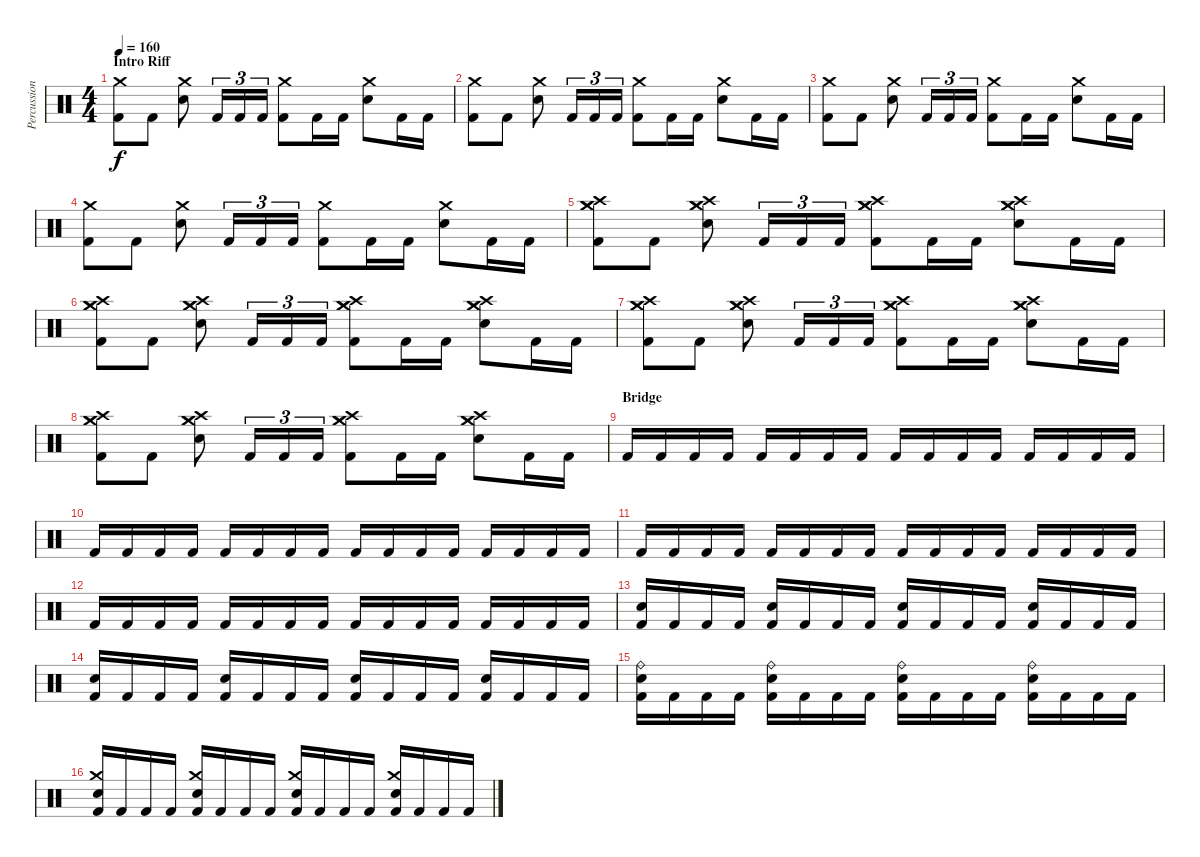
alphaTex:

\track ("Percussion" "Percussion") {instrument percussion}
\staff {score}
\articulation defaults
\ts (4 4)
\section ("" "Intro Riff")
\tempo 160
\clef neutral
\ks c
("Kick (hit) 2" "Crash medium (hit)").8{dy f} "Kick (hit) 2".8 ("Electric Snare (hit)" "Crash medium (hit)").8 "Kick (hit) 2".16{tu (3 2)} "Kick (hit) 2".16{tu (3 2)} "Kick (hit) 2".16{tu (3 2)} ("Kick (hit) 2" "Crash medium (hit)").8 "Kick (hit) 2".16 "Kick (hit) 2".16 ("Electric Snare (hit)" "Crash medium (hit)").8 "Kick (hit) 2".16 "Kick (hit) 2".16 |
("Kick (hit) 2" "Crash medium (hit)").8 "Kick (hit) 2".8 ("Electric Snare (hit)" "Crash medium (hit)").8 "Kick (hit) 2".16{tu (3 2)} "Kick (hit) 2".16{tu (3 2)} "Kick (hit) 2".16{tu (3 2)} ("Kick (hit) 2" "Crash medium (hit)").8 "Kick (hit) 2".16 "Kick (hit) 2".16 ("Electric Snare (hit)" "Crash medium (hit)").8 "Kick (hit) 2".16 "Kick (hit) 2".16 |
("Kick (hit) 2" "Crash medium (hit)").8 "Kick (hit) 2".8 ("Electric Snare (hit)" "Crash medium (hit)").8 "Kick (hit) 2".16{tu (3 2)} "Kick (hit) 2".16{tu (3 2)} "Kick (hit) 2".16{tu (3 2)} ("Kick (hit) 2" "Crash medium (hit)").8 "Kick (hit) 2".16 "Kick (hit) 2".16 ("Electric Snare (hit)" "Crash medium (hit)").8 "Kick (hit) 2".16 "Kick (hit) 2".16 |
("Kick (hit) 2" "Crash medium (hit)").8 "Kick (hit) 2".8 ("Electric Snare (hit)" "Crash medium (hit)").8 "Kick (hit) 2".16{tu (3 2)} "Kick (hit) 2".16{tu (3 2)} "Kick (hit) 2".16{tu (3 2)} ("Kick (hit) 2" "Crash medium (hit)").8 "Kick (hit) 2".16 "Kick (hit) 2".16 ("Electric Snare (hit)" "Crash medium (hit)").8 "Kick (hit) 2".16 "Kick (hit) 2".16 |
("Crash medium (hit)" "Crash high (hit)" "Kick (hit) 2" "Crash medium (hit)").8 "Kick (hit) 2".8 ("Crash medium (hit)" "Crash high (hit)" "Electric Snare (hit)" "Crash medium (hit)").8 "Kick (hit) 2".16{tu (3 2)} "Kick (hit) 2".16{tu (3 2)} "Kick (hit) 2".16{tu (3 2)} ("Crash medium (hit)" "Crash high (hit)" "Kick (hit) 2" "Crash medium (hit)").8 "Kick (hit) 2".16 "Kick (hit) 2".16 ("Crash medium (hit)" "Crash high (hit)" "Electric Snare (hit)" "Crash medium (hit)").8 "Kick (hit) 2".16 "Kick (hit) 2".16 |
("Crash medium (hit)" "Crash high (hit)" "Kick (hit) 2" "Crash medium (hit)").8 "Kick (hit) 2".8 ("Crash medium (hit)" "Crash high (hit)" "Electric Snare (hit)" "Crash medium (hit)").8 "Kick (hit) 2".16{tu (3 2)} "Kick (hit) 2".16{tu (3 2)} "Kick (hit) 2".16{tu (3 2)} ("Crash medium (hit)" "Crash high (hit)" "Kick (hit) 2" "Crash medium (hit)").8 "Kick (hit) 2".16 "Kick (hit) 2".16 ("Crash medium (hit)" "Crash high (hit)" "Electric Snare (hit)" "Crash medium (hit)").8 "Kick (hit) 2".16 "Kick (hit) 2".16 |
("Crash medium (hit)" "Crash high (hit)" "Kick (hit) 2" "Crash medium (hit)").8 "Kick (hit) 2".8 ("Crash medium (hit)" "Crash high (hit)" "Electric Snare (hit)" "Crash medium (hit)").8 "Kick (hit) 2".16{tu (3 2)} "Kick (hit) 2".16{tu (3 2)} "Kick (hit) 2".16{tu (3 2)} ("Crash medium (hit)" "Crash high (hit)" "Kick (hit) 2" "Crash medium (hit)").8 "Kick (hit) 2".16 "Kick (hit) 2".16 ("Crash medium (hit)" "Crash high (hit)" "Electric Snare (hit)" "Crash medium (hit)").8 "Kick (hit) 2".16 "Kick (hit) 2".16 |
("Crash medium (hit)" "Crash high (hit)" "Kick (hit) 2" "Crash medium (hit)").8 "Kick (hit) 2".8 ("Crash medium (hit)" "Crash high (hit)" "Electric Snare (hit)" "Crash medium (hit)").8 "Kick (hit) 2".16{tu (3 2)} "Kick (hit) 2".16{tu (3 2)} "Kick (hit) 2".16{tu (3 2)} ("Crash medium (hit)" "Crash high (hit)" "Kick (hit) 2" "Crash medium (hit)").8 "Kick (hit) 2".16 "Kick (hit) 2".16 ("Crash medium (hit)" "Crash high (hit)" "Electric Snare (hit)" "Crash medium (hit)").8 "Kick (hit) 2".16 "Kick (hit) 2".16 |
\section ("" "Bridge")
"Kick (hit) 2".16 "Kick (hit) 2".16 "Kick (hit) 2".16 "Kick (hit) 2".16 "Kick (hit) 2".16 "Kick (hit) 2".16 "Kick (hit) 2".16 "Kick (hit) 2".16 "Kick (hit) 2".16 "Kick (hit) 2".16 "Kick (hit) 2".16 "Kick (hit) 2".16 "Kick (hit) 2".16 "Kick (hit) 2".16 "Kick (hit) 2".16 "Kick (hit) 2".16 |
"Kick (hit) 2".16 "Kick (hit) 2".16 "Kick (hit) 2".16 "Kick (hit) 2".16 "Kick (hit) 2".16 "Kick (hit) 2".16 "Kick (hit) 2".16 "Kick (hit) 2".16 "Kick (hit) 2".16 "Kick (hit) 2".16 "Kick (hit) 2".16 "Kick (hit) 2".16 "Kick (hit) 2".16 "Kick (hit) 2".16 "Kick (hit) 2".16 "Kick (hit) 2".16 |
"Kick (hit) 2".16 "Kick (hit) 2".16 "Kick (hit) 2".16 "Kick (hit) 2".16 "Kick (hit) 2".16 "Kick (hit) 2".16 "Kick (hit) 2".16 "Kick (hit) 2".16 "Kick (hit) 2".16 "Kick (hit) 2".16 "Kick (hit) 2".16 "Kick (hit) 2".16 "Kick (hit) 2".16 "Kick (hit) 2".16 "Kick (hit) 2".16 "Kick (hit) 2".16 |
"Kick (hit) 2".16 "Kick (hit) 2".16 "Kick (hit) 2".16 "Kick (hit) 2".16 "Kick (hit) 2".16 "Kick (hit) 2".16 "Kick (hit) 2".16 "Kick (hit) 2".16 "Kick (hit) 2".16 "Kick (hit) 2".16 "Kick (hit) 2".16 "Kick (hit) 2".16 "Kick (hit) 2".16 "Kick (hit) 2".16 "Kick (hit) 2".16 "Kick (hit) 2".16 |
("Kick (hit) 2" "Electric Snare (hit)").16 "Kick (hit) 2".16 "Kick (hit) 2".16 "Kick (hit) 2".16 ("Kick (hit) 2" "Electric Snare (hit)").16 "Kick (hit) 2".16 "Kick (hit) 2".16 "Kick (hit) 2".16 ("Kick (hit) 2" "Electric Snare (hit)").16 "Kick (hit) 2".16 "Kick (hit) 2".16 "Kick (hit) 2".16 ("Kick (hit) 2" "Electric Snare (hit)").16 "Kick (hit) 2".16 "Kick (hit) 2".16 "Kick (hit) 2".16 |
("Kick (hit) 2" "Electric Snare (hit)").16 "Kick (hit) 2".16 "Kick (hit) 2".16 "Kick (hit) 2".16 ("Kick (hit) 2" "Electric Snare (hit)").16 "Kick (hit) 2".16 "Kick (hit) 2".16 "Kick (hit) 2".16 ("Kick (hit) 2" "Electric Snare (hit)").16 "Kick (hit) 2".16 "Kick (hit) 2".16 "Kick (hit) 2".16 ("Kick (hit) 2" "Electric Snare (hit)").16 "Kick (hit) 2".16 "Kick (hit) 2".16 "Kick (hit) 2".16 |
("Kick (hit) 2" "Electric Snare (hit)" "Ride (bell)").16 "Kick (hit) 2".16 "Kick (hit) 2".16 "Kick (hit) 2".16 ("Kick (hit) 2" "Electric Snare (hit)" "Ride (bell)").16 "Kick (hit) 2".16 "Kick (hit) 2".16 "Kick (hit) 2".16 ("Kick (hit) 2" "Electric Snare (hit)" "Ride (bell)").16 "Kick (hit) 2".16 "Kick (hit) 2".16 "Kick (hit) 2".16 ("Kick (hit) 2" "Electric Snare (hit)" "Ride (bell)").16 "Kick (hit) 2".16 "Kick (hit) 2".16 "Kick (hit) 2".16 |
("Kick (hit) 2" "Electric Snare (hit)" "Crash medium (hit)").16 "Kick (hit) 2".16 "Kick (hit) 2".16 "Kick (hit) 2".16 ("Kick (hit) 2" "Electric Snare (hit)" "Crash medium (hit)").16 "Kick (hit) 2".16 "Kick (hit) 2".16 "Kick (hit) 2".16 ("Kick (hit) 2" "Electric Snare (hit)" "Crash medium (hit)").16 "Kick (hit) 2".16 "Kick (hit) 2".16 "Kick (hit) 2".16 ("Kick (hit) 2" "Electric Snare (hit)" "Crash medium (hit)").16 "Kick (hit) 2".16 "Kick (hit) 2".16 "Kick (hit) 2".16
